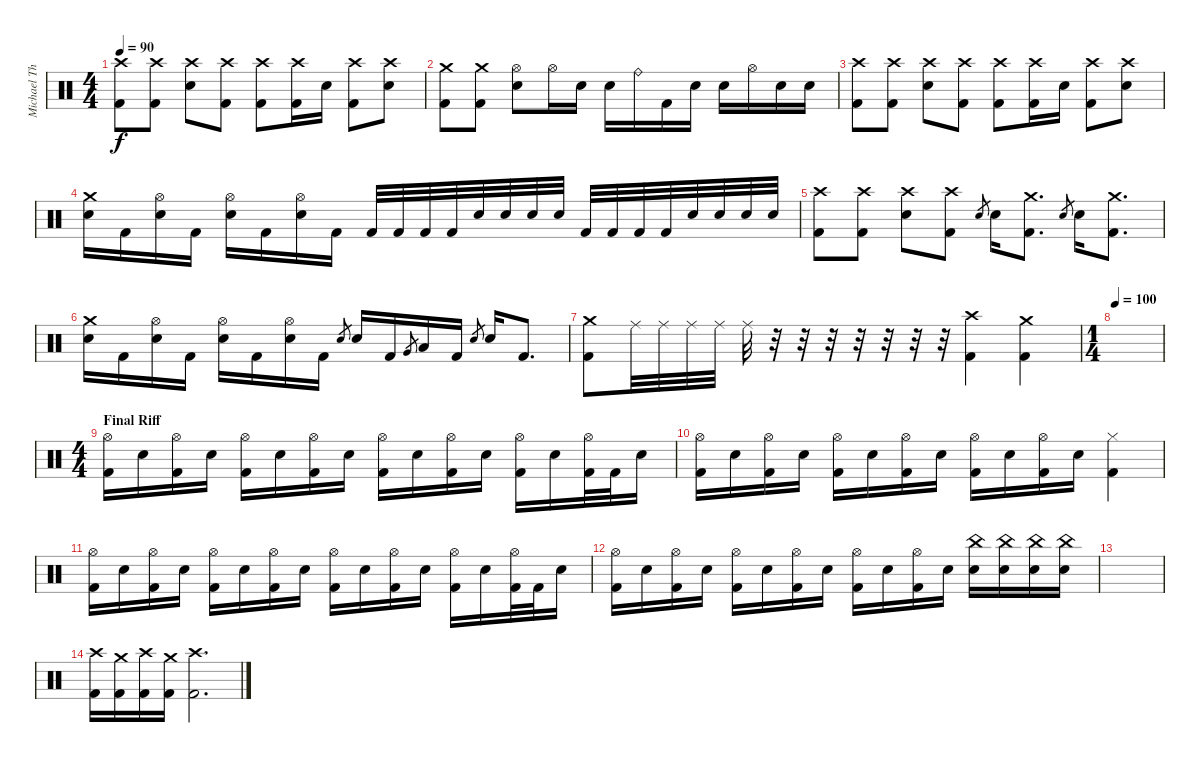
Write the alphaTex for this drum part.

\track ("Michael Thomas" "Michael Th") {instrument percussion}
\staff {score}
\articulation defaults
\ts (4 4)
\tempo 90
\clef neutral
\ks c
("Crash high (hit)" "Kick (hit) 2").8{dy f} ("Crash high (hit)" "Kick (hit) 2").8 ("Crash high (hit)" "Electric Snare (hit)").8 ("Crash high (hit)" "Kick (hit) 2").8 ("Crash high (hit)" "Kick (hit) 2").8 ("Crash high (hit)" "Kick (hit) 2").16 "Electric Snare (hit)".16 ("Crash high (hit)" "Kick (hit) 2").8 ("Crash high (hit)" "Electric Snare (hit)").8 |
("Crash medium (hit)" "Kick (hit) 2").8 ("Crash medium (hit)" "Kick (hit) 2").8 ("Hi-Hat (open)" "Electric Snare (hit)").8 "Hi-Hat (open)".16 "Electric Snare (hit)".16 "Electric Snare (hit)".16 "Ride (bell)".16 "Kick (hit) 2".16 "Electric Snare (hit)".16 "Electric Snare (hit)".16 "Hi-Hat (open)".16 "Electric Snare (hit)".16 "Electric Snare (hit)".16 |
("Crash high (hit)" "Kick (hit) 2").8 ("Crash high (hit)" "Kick (hit) 2").8 ("Crash high (hit)" "Electric Snare (hit)").8 ("Crash high (hit)" "Kick (hit) 2").8 ("Crash high (hit)" "Kick (hit) 2").8 ("Crash high (hit)" "Kick (hit) 2").16 "Electric Snare (hit)".16 ("Crash high (hit)" "Kick (hit) 2").8 ("Crash high (hit)" "Electric Snare (hit)").8 |
("Crash medium (hit)" "Electric Snare (hit)").16 "Kick (hit) 2".16 ("Hi-Hat (open)" "Electric Snare (hit)").16 "Kick (hit) 2".16 ("Hi-Hat (open)" "Electric Snare (hit)").16 "Kick (hit) 2".16 ("Hi-Hat (open)" "Electric Snare (hit)").16 "Kick (hit) 2".16 "Kick (hit) 2".32 "Kick (hit) 2".32 "Kick (hit) 2".32 "Kick (hit) 2".32 "Electric Snare (hit)".32 "Electric Snare (hit)".32 "Electric Snare (hit)".32 "Electric Snare (hit)".32 "Kick (hit) 2".32 "Kick (hit) 2".32 "Kick (hit) 2".32 "Kick (hit) 2".32 "Electric Snare (hit)".32 "Electric Snare (hit)".32 "Electric Snare (hit)".32 "Electric Snare (hit)".32 |
("Crash high (hit)" "Kick (hit) 2").8 ("Crash high (hit)" "Kick (hit) 2").8 ("Crash high (hit)" "Electric Snare (hit)").8 ("Crash high (hit)" "Kick (hit) 2").8 "Electric Snare (hit)".8{gr} "Electric Snare (hit)".16 ("Crash medium (hit)" "Kick (hit) 2").8{d} "Electric Snare (hit)".8{gr} "Electric Snare (hit)".16 ("Crash medium (hit)" "Kick (hit) 2").8{d} |
("Crash medium (hit)" "Electric Snare (hit)").16 "Kick (hit) 2".16 ("Hi-Hat (open)" "Electric Snare (hit)").16 "Kick (hit) 2".16 ("Hi-Hat (open)" "Electric Snare (hit)").16 "Kick (hit) 2".16 ("Hi-Hat (open)" "Electric Snare (hit)").16 "Kick (hit) 2".16 "Electric Snare (hit)".8{gr} "Electric Snare (hit)".16 "Kick (hit) 2".16 "Very Low Tom (hit)".8{gr} "Low Floor Tom (hit)".16 "Kick (hit) 2".16 "Electric Snare (hit)".8{gr} "Electric Snare (hit)".16 "Kick (hit) 2".8{d} |
("Crash medium (hit)" "Kick (hit) 2").8 "Ride (middle)".32 "Ride (middle)".32 "Ride (middle)".32 "Ride (middle)".32 "Ride (middle)".32 r.32 r.32 r.32 r.32 r.32 r.32 r.32 ("Crash high (hit)" "Kick (hit) 2").4 ("Crash medium (hit)" "Kick (hit) 2").4 |
\ts (1 4)
\tempo 100
|
\ts (4 4)
\section ("" "Final Riff")
("Hi-Hat (open)" "Kick (hit) 2").16 "Electric Snare (hit)".16 ("Hi-Hat (open)" "Kick (hit) 2").16 "Electric Snare (hit)".16 ("Hi-Hat (open)" "Kick (hit) 2").16 "Electric Snare (hit)".16 ("Hi-Hat (open)" "Kick (hit) 2").16 "Electric Snare (hit)".16 ("Hi-Hat (open)" "Kick (hit) 2").16 "Electric Snare (hit)".16 ("Hi-Hat (open)" "Kick (hit) 2").16 "Electric Snare (hit)".16 ("Hi-Hat (open)" "Kick (hit) 2").16 "Electric Snare (hit)".16 ("Hi-Hat (open)" "Kick (hit) 2").32 "Kick (hit) 2".32 "Electric Snare (hit)".16 |
("Hi-Hat (open)" "Kick (hit) 2").16 "Electric Snare (hit)".16 ("Hi-Hat (open)" "Kick (hit) 2").16 "Electric Snare (hit)".16 ("Hi-Hat (open)" "Kick (hit) 2").16 "Electric Snare (hit)".16 ("Hi-Hat (open)" "Kick (hit) 2").16 "Electric Snare (hit)".16 ("Hi-Hat (open)" "Kick (hit) 2").16 "Electric Snare (hit)".16 ("Hi-Hat (open)" "Kick (hit) 2").16 "Electric Snare (hit)".16 ("Hi-Hat (closed)" "Kick (hit) 2").4 |
("Hi-Hat (open)" "Kick (hit) 2").16 "Electric Snare (hit)".16 ("Hi-Hat (open)" "Kick (hit) 2").16 "Electric Snare (hit)".16 ("Hi-Hat (open)" "Kick (hit) 2").16 "Electric Snare (hit)".16 ("Hi-Hat (open)" "Kick (hit) 2").16 "Electric Snare (hit)".16 ("Hi-Hat (open)" "Kick (hit) 2").16 "Electric Snare (hit)".16 ("Hi-Hat (open)" "Kick (hit) 2").16 "Electric Snare (hit)".16 ("Hi-Hat (open)" "Kick (hit) 2").16 "Electric Snare (hit)".16 ("Hi-Hat (open)" "Kick (hit) 2").32 "Kick (hit) 2".32 "Electric Snare (hit)".16 |
("Hi-Hat (open)" "Kick (hit) 2").16 "Electric Snare (hit)".16 ("Hi-Hat (open)" "Kick (hit) 2").16 "Electric Snare (hit)".16 ("Hi-Hat (open)" "Kick (hit) 2").16 "Electric Snare (hit)".16 ("Hi-Hat (open)" "Kick (hit) 2").16 "Electric Snare (hit)".16 ("Hi-Hat (open)" "Kick (hit) 2").16 "Electric Snare (hit)".16 ("Hi-Hat (open)" "Kick (hit) 2").16 "Electric Snare (hit)".16 ("China (hit)" "Electric Snare (hit)").16 ("China (hit)" "Electric Snare (hit)").16 ("China (hit)" "Electric Snare (hit)").16 ("China (hit)" "Electric Snare (hit)").16 |
|
("Crash high (hit)" "Kick (hit) 2").16 ("Crash medium (hit)" "Kick (hit) 2").16 ("Crash high (hit)" "Kick (hit) 2").16 ("Crash medium (hit)" "Kick (hit) 2").16 ("Crash high (hit)" "Kick (hit) 2").2{d}
